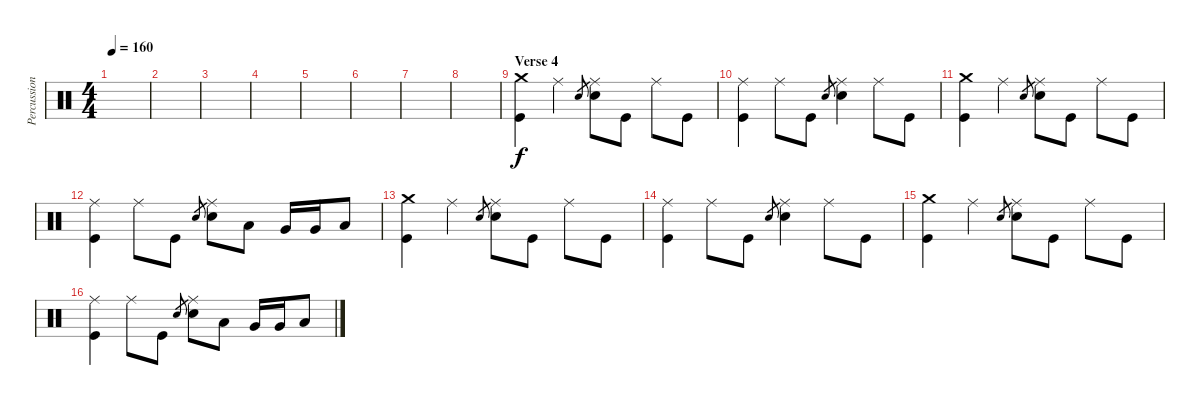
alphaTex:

\track ("Percussion" "Percussion") {instrument percussion}
\staff {score}
\articulation defaults
\ts (4 4)
\tempo 160
\clef neutral
\ks c
|
|
|
|
|
|
|
|
\section ("" "Verse 4")
("Crash medium (hit)" "Kick (hit)").4 "Ride (middle)".4 "Electric Snare (hit)".8{gr} ("Ride (middle)" "Electric Snare (hit)").8 "Kick (hit)".8 "Ride (middle)".8 "Kick (hit)".8 |
("Ride (middle)" "Kick (hit)").4 "Ride (middle)".8 "Kick (hit)".8 "Electric Snare (hit)".8{gr} ("Ride (middle)" "Electric Snare (hit)").4 "Ride (middle)".8 "Kick (hit)".8 |
("Crash medium (hit)" "Kick (hit)").4 "Ride (middle)".4 "Electric Snare (hit)".8{gr} ("Ride (middle)" "Electric Snare (hit)").8 "Kick (hit)".8 "Ride (middle)".8 "Kick (hit)".8 |
("Ride (middle)" "Kick (hit)").4 "Ride (middle)".8 "Kick (hit)".8 "Electric Snare (hit)".8{gr} ("Ride (middle)" "Electric Snare (hit)").8 "Low Tom (hit)".8 "Very Low Tom (hit)".16 "Very Low Tom (hit)".16 "Low Floor Tom (hit)".8 |
("Crash medium (hit)" "Kick (hit)").4 "Ride (middle)".4 "Electric Snare (hit)".8{gr} ("Ride (middle)" "Electric Snare (hit)").8 "Kick (hit)".8 "Ride (middle)".8 "Kick (hit)".8 |
("Ride (middle)" "Kick (hit)").4 "Ride (middle)".8 "Kick (hit)".8 "Electric Snare (hit)".8{gr} ("Ride (middle)" "Electric Snare (hit)").4 "Ride (middle)".8 "Kick (hit)".8 |
("Crash medium (hit)" "Kick (hit)").4 "Ride (middle)".4 "Electric Snare (hit)".8{gr} ("Ride (middle)" "Electric Snare (hit)").8 "Kick (hit)".8 "Ride (middle)".8 "Kick (hit)".8 |
("Ride (middle)" "Kick (hit)").4 "Ride (middle)".8 "Kick (hit)".8 "Electric Snare (hit)".8{gr} ("Ride (middle)" "Electric Snare (hit)").8 "Low Tom (hit)".8 "Very Low Tom (hit)".16 "Very Low Tom (hit)".16 "Low Floor Tom (hit)".8
